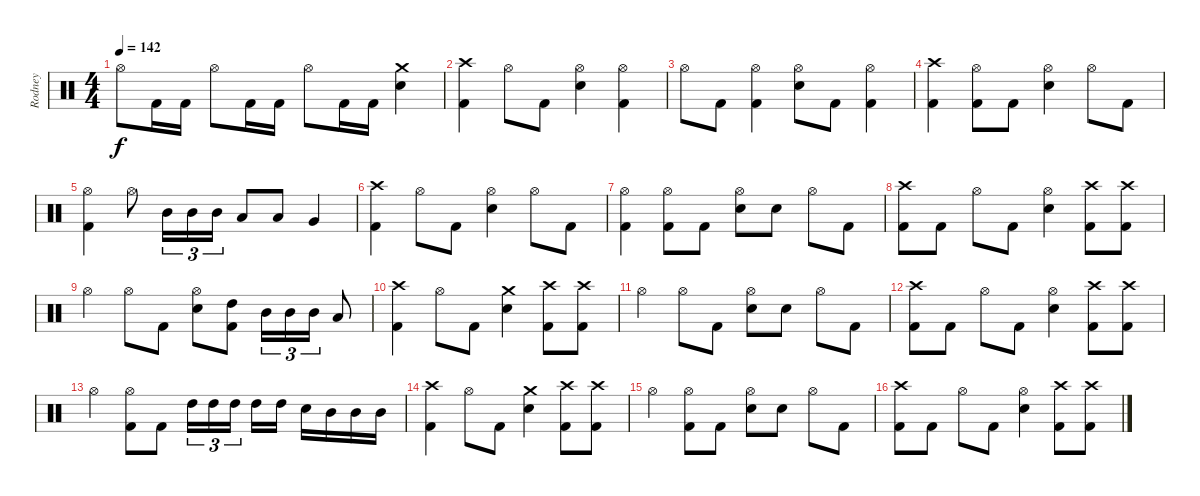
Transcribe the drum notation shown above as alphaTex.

\track ("Rodney" "Rodney") {instrument percussion}
\staff {score}
\articulation defaults
\ts (4 4)
\tempo 142
\clef neutral
\ks c "Hi-Hat (open)".8{dy f} "Kick (hit) 2".16 "Kick (hit) 2".16 "Hi-Hat (open)".8 "Kick (hit) 2".16 "Kick (hit) 2".16 "Hi-Hat (open)".8 "Kick (hit) 2".16 "Kick (hit) 2".16
("Crash medium (hit)" "Snare (hit) 2").4 |
("Crash high (hit)" "Kick (hit) 2").4 "Hi-Hat (open)".8 "Kick (hit) 2".8 ("Hi-Hat (open)" "Snare (hit) 2").4 ("Hi-Hat (open)" "Kick (hit) 2").4 |
"Hi-Hat (open)".8 "Kick (hit) 2".8 ("Hi-Hat (open)" "Kick (hit) 2").4 ("Hi-Hat (open)" "Snare (hit) 2").8 "Kick (hit) 2".8 ("Hi-Hat (open)" "Kick (hit) 2").4 |
("Crash high (hit)" "Kick (hit) 2").4 ("Hi-Hat (open)" "Kick (hit) 2").8 "Kick (hit) 2".8 ("Hi-Hat (open)" "Snare (hit) 2").4 "Hi-Hat (open)".8 "Kick (hit) 2".8 |
("Hi-Hat (open)" "Kick (hit) 2").4 "Hi-Hat (open)".8 "Mid Tom (hit)".16{tu (3 2)} "Mid Tom (hit)".16{tu (3 2)} "Mid Tom (hit)".16{tu (3 2)} "Low Tom (hit)".8 "Low Tom (hit)".8 "Very Low Tom (hit)".4 |
("Crash high (hit)" "Kick (hit) 2").4 "Hi-Hat (open)".8 "Kick (hit) 2".8 ("Hi-Hat (open)" "Snare (hit) 2").4 "Hi-Hat (open)".8 "Kick (hit) 2".8 |
("Hi-Hat (open)" "Kick (hit) 2").4 ("Hi-Hat (open)" "Kick (hit) 2").8 "Kick (hit) 2".8 ("Hi-Hat (open)" "Snare (hit) 2").8 "Snare (hit) 2".8 "Hi-Hat (open)".8 "Kick (hit) 2".8 |
("Crash high (hit)" "Kick (hit) 2").8 "Kick (hit) 2".8 "Hi-Hat (open)".8 "Kick (hit) 2".8 ("Hi-Hat (open)" "Snare (hit) 2").4 ("Crash high (hit)" "Kick (hit) 2").8 ("Crash high (hit)" "Kick (hit) 2").8 |
"Hi-Hat (open)".4 "Hi-Hat (open)".8 "Kick (hit) 2".8 ("Hi-Hat (open)" "Snare (hit) 2").8 ("High Tom (hit)" "Kick (hit) 2").8 "Mid Tom (hit)".16{tu (3 2)} "Mid Tom (hit)".16{tu (3 2)} "Mid Tom (hit)".16{tu (3 2)} "Low Tom (hit)".8 |
("Crash high (hit)" "Kick (hit) 2").4 "Hi-Hat (open)".8 "Kick (hit) 2".8 ("Crash medium (hit)" "Snare (hit) 2").4 ("Crash high (hit)" "Kick (hit) 2").8 ("Crash high (hit)" "Kick (hit) 2").8 |
"Hi-Hat (open)".4 "Hi-Hat (open)".8 "Kick (hit) 2".8 ("Hi-Hat (open)" "Snare (hit) 2").8 "Snare (hit) 2".8 "Hi-Hat (open)".8 "Kick (hit) 2".8 |
("Crash high (hit)" "Kick (hit) 2").8 "Kick (hit) 2".8 "Hi-Hat (open)".8 "Kick (hit) 2".8 ("Hi-Hat (open)" "Snare (hit) 2").4 ("Crash high (hit)" "Kick (hit) 2").8 ("Crash high (hit)" "Kick (hit) 2").8 |
"Hi-Hat (open)".4 ("Hi-Hat (open)" "Kick (hit) 2").8 "Kick (hit) 2".8 "High Tom (hit)".16{tu (3 2)} "High Tom (hit)".16{tu (3 2)} "High Tom (hit)".16{tu (3 2)} "High Tom (hit)".16 "High Tom (hit)".16 "Snare (hit) 2".16 "Mid Tom (hit)".16 "Mid Tom (hit)".16 "Mid Tom (hit)".16 |
("Crash high (hit)" "Kick (hit) 2").4 "Hi-Hat (open)".8 "Kick (hit) 2".8 ("Crash medium (hit)" "Snare (hit) 2").4 ("Crash high (hit)" "Kick (hit) 2").8 ("Crash high (hit)" "Kick (hit) 2").8 |
"Hi-Hat (open)".4 ("Hi-Hat (open)" "Kick (hit) 2").8 "Kick (hit) 2".8 ("Hi-Hat (open)" "Snare (hit) 2").8 "Snare (hit) 2".8 "Hi-Hat (open)".8 "Kick (hit) 2".8 |
("Crash high (hit)" "Kick (hit) 2").8 "Kick (hit) 2".8 "Hi-Hat (open)".8 "Kick (hit) 2".8 ("Hi-Hat (open)" "Snare (hit) 2").4 ("Crash high (hit)" "Kick (hit) 2").8 ("Crash high (hit)" "Kick (hit) 2").8
